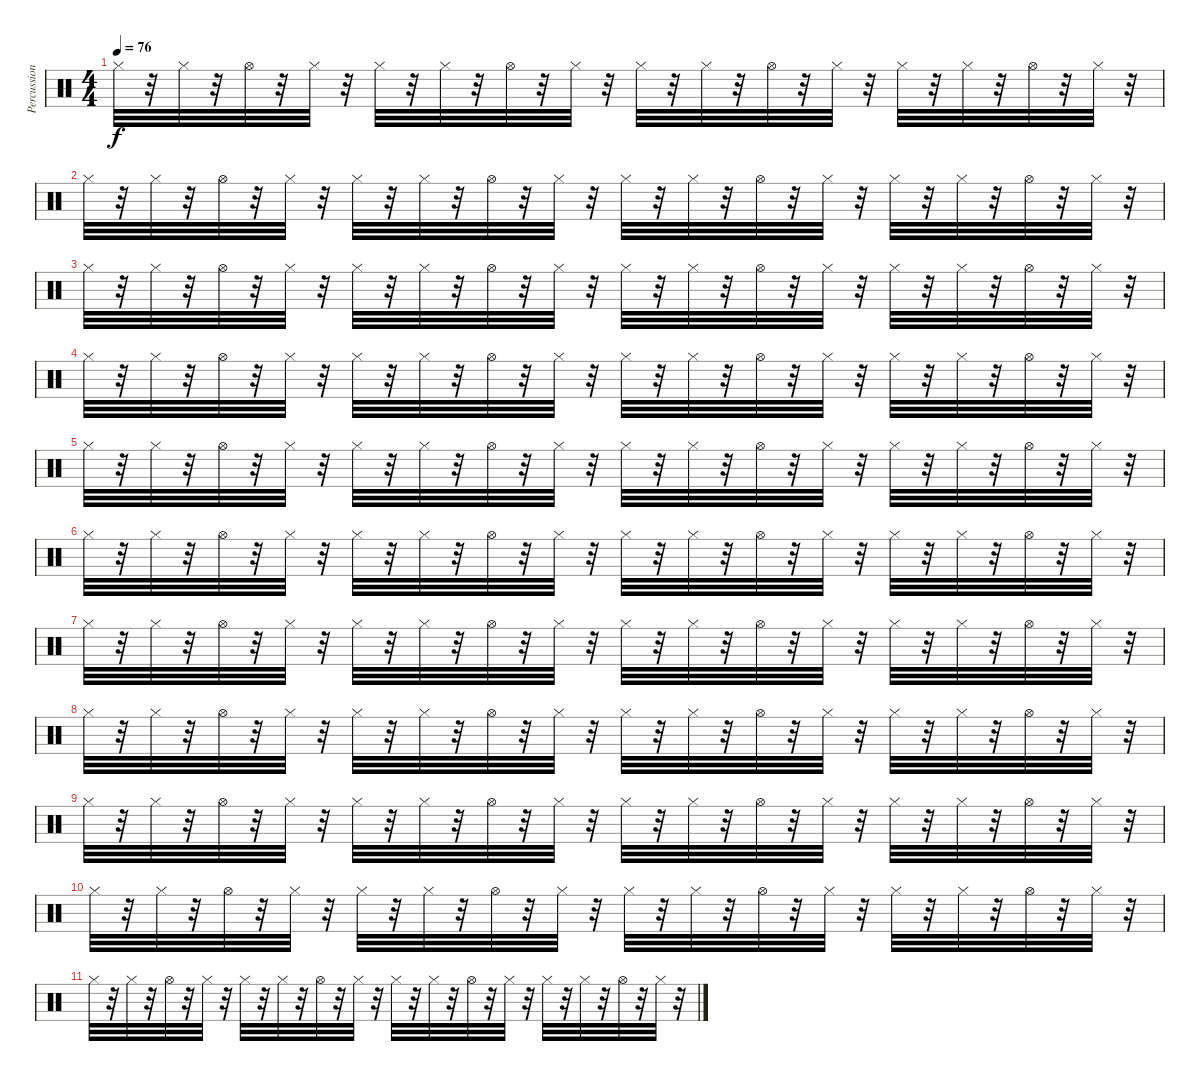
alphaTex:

\track ("Percussioni" "Percussion") {instrument percussion}
\staff {score}
\articulation defaults
\ts (4 4)
\tempo 76
\clef neutral
\ks c "Hi-Hat (closed)".32{dy f}
r.32 "Hi-Hat (closed)".32 r.32 "Hi-Hat (open)".32 r.32 "Hi-Hat (closed)".32 r.32 "Hi-Hat (closed)".32 r.32 "Hi-Hat (closed)".32 r.32 "Hi-Hat (open)".32 r.32 "Hi-Hat (closed)".32 r.32 "Hi-Hat (closed)".32 r.32 "Hi-Hat (closed)".32 r.32 "Hi-Hat (open)".32 r.32 "Hi-Hat (closed)".32 r.32 "Hi-Hat (closed)".32 r.32 "Hi-Hat (closed)".32 r.32 "Hi-Hat (open)".32 r.32 "Hi-Hat (closed)".32 r.32 |
"Hi-Hat (closed)".32 r.32 "Hi-Hat (closed)".32 r.32 "Hi-Hat (open)".32 r.32 "Hi-Hat (closed)".32 r.32 "Hi-Hat (closed)".32 r.32 "Hi-Hat (closed)".32 r.32 "Hi-Hat (open)".32 r.32 "Hi-Hat (closed)".32 r.32 "Hi-Hat (closed)".32 r.32 "Hi-Hat (closed)".32 r.32 "Hi-Hat (open)".32 r.32 "Hi-Hat (closed)".32 r.32 "Hi-Hat (closed)".32 r.32 "Hi-Hat (closed)".32 r.32 "Hi-Hat (open)".32 r.32 "Hi-Hat (closed)".32 r.32 |
"Hi-Hat (closed)".32 r.32 "Hi-Hat (closed)".32 r.32 "Hi-Hat (open)".32 r.32 "Hi-Hat (closed)".32 r.32 "Hi-Hat (closed)".32 r.32 "Hi-Hat (closed)".32 r.32 "Hi-Hat (open)".32 r.32 "Hi-Hat (closed)".32 r.32 "Hi-Hat (closed)".32 r.32 "Hi-Hat (closed)".32 r.32 "Hi-Hat (open)".32 r.32 "Hi-Hat (closed)".32 r.32 "Hi-Hat (closed)".32 r.32 "Hi-Hat (closed)".32 r.32 "Hi-Hat (open)".32 r.32 "Hi-Hat (closed)".32 r.32 |
"Hi-Hat (closed)".32 r.32 "Hi-Hat (closed)".32 r.32 "Hi-Hat (open)".32 r.32 "Hi-Hat (closed)".32 r.32 "Hi-Hat (closed)".32 r.32 "Hi-Hat (closed)".32 r.32 "Hi-Hat (open)".32 r.32 "Hi-Hat (closed)".32 r.32 "Hi-Hat (closed)".32 r.32 "Hi-Hat (closed)".32 r.32 "Hi-Hat (open)".32 r.32 "Hi-Hat (closed)".32 r.32 "Hi-Hat (closed)".32 r.32 "Hi-Hat (closed)".32 r.32 "Hi-Hat (open)".32 r.32 "Hi-Hat (closed)".32 r.32 |
"Hi-Hat (closed)".32{volume 10} r.32 "Hi-Hat (closed)".32 r.32 "Hi-Hat (open)".32 r.32 "Hi-Hat (closed)".32 r.32 "Hi-Hat (closed)".32 r.32 "Hi-Hat (closed)".32 r.32 "Hi-Hat (open)".32 r.32 "Hi-Hat (closed)".32 r.32 "Hi-Hat (closed)".32 r.32 "Hi-Hat (closed)".32 r.32 "Hi-Hat (open)".32 r.32 "Hi-Hat (closed)".32 r.32 "Hi-Hat (closed)".32 r.32 "Hi-Hat (closed)".32 r.32 "Hi-Hat (open)".32 r.32 "Hi-Hat (closed)".32 r.32 |
"Hi-Hat (closed)".32 r.32 "Hi-Hat (closed)".32 r.32 "Hi-Hat (open)".32 r.32 "Hi-Hat (closed)".32 r.32 "Hi-Hat (closed)".32 r.32 "Hi-Hat (closed)".32 r.32 "Hi-Hat (open)".32 r.32 "Hi-Hat (closed)".32 r.32 "Hi-Hat (closed)".32 r.32 "Hi-Hat (closed)".32 r.32 "Hi-Hat (open)".32 r.32 "Hi-Hat (closed)".32 r.32 "Hi-Hat (closed)".32 r.32 "Hi-Hat (closed)".32 r.32 "Hi-Hat (open)".32 r.32 "Hi-Hat (closed)".32 r.32 |
"Hi-Hat (closed)".32{volume 8} r.32 "Hi-Hat (closed)".32 r.32 "Hi-Hat (open)".32 r.32 "Hi-Hat (closed)".32 r.32 "Hi-Hat (closed)".32 r.32 "Hi-Hat (closed)".32 r.32 "Hi-Hat (open)".32 r.32 "Hi-Hat (closed)".32 r.32 "Hi-Hat (closed)".32 r.32 "Hi-Hat (closed)".32 r.32 "Hi-Hat (open)".32 r.32 "Hi-Hat (closed)".32 r.32 "Hi-Hat (closed)".32 r.32 "Hi-Hat (closed)".32 r.32 "Hi-Hat (open)".32 r.32 "Hi-Hat (closed)".32 r.32 |
"Hi-Hat (closed)".32 r.32 "Hi-Hat (closed)".32 r.32 "Hi-Hat (open)".32 r.32 "Hi-Hat (closed)".32 r.32 "Hi-Hat (closed)".32 r.32 "Hi-Hat (closed)".32 r.32 "Hi-Hat (open)".32 r.32 "Hi-Hat (closed)".32 r.32 "Hi-Hat (closed)".32 r.32 "Hi-Hat (closed)".32 r.32 "Hi-Hat (open)".32 r.32 "Hi-Hat (closed)".32 r.32 "Hi-Hat (closed)".32 r.32 "Hi-Hat (closed)".32 r.32 "Hi-Hat (open)".32 r.32 "Hi-Hat (closed)".32 r.32 |
"Hi-Hat (closed)".32{volume 6} r.32 "Hi-Hat (closed)".32 r.32 "Hi-Hat (open)".32 r.32 "Hi-Hat (closed)".32 r.32 "Hi-Hat (closed)".32 r.32 "Hi-Hat (closed)".32 r.32 "Hi-Hat (open)".32 r.32 "Hi-Hat (closed)".32 r.32 "Hi-Hat (closed)".32 r.32 "Hi-Hat (closed)".32 r.32 "Hi-Hat (open)".32 r.32 "Hi-Hat (closed)".32 r.32 "Hi-Hat (closed)".32 r.32 "Hi-Hat (closed)".32 r.32 "Hi-Hat (open)".32 r.32 "Hi-Hat (closed)".32 r.32 |
"Hi-Hat (closed)".32{volume 4} r.32 "Hi-Hat (closed)".32 r.32 "Hi-Hat (open)".32 r.32 "Hi-Hat (closed)".32 r.32 "Hi-Hat (closed)".32 r.32 "Hi-Hat (closed)".32 r.32 "Hi-Hat (open)".32 r.32 "Hi-Hat (closed)".32 r.32 "Hi-Hat (closed)".32 r.32 "Hi-Hat (closed)".32{volume 2} r.32 "Hi-Hat (open)".32 r.32 "Hi-Hat (closed)".32 r.32 "Hi-Hat (closed)".32 r.32 "Hi-Hat (closed)".32 r.32 "Hi-Hat (open)".32 r.32 "Hi-Hat (closed)".32 r.32 |
"Hi-Hat (closed)".32 r.32 "Hi-Hat (closed)".32 r.32 "Hi-Hat (open)".32 r.32 "Hi-Hat (closed)".32 r.32 "Hi-Hat (closed)".32{volume 1} r.32 "Hi-Hat (closed)".32 r.32 "Hi-Hat (open)".32 r.32 "Hi-Hat (closed)".32 r.32 "Hi-Hat (closed)".32 r.32 "Hi-Hat (closed)".32 r.32 "Hi-Hat (open)".32 r.32 "Hi-Hat (closed)".32 r.32 "Hi-Hat (closed)".32 r.32 "Hi-Hat (closed)".32 r.32 "Hi-Hat (open)".32 r.32 "Hi-Hat (closed)".32 r.32
